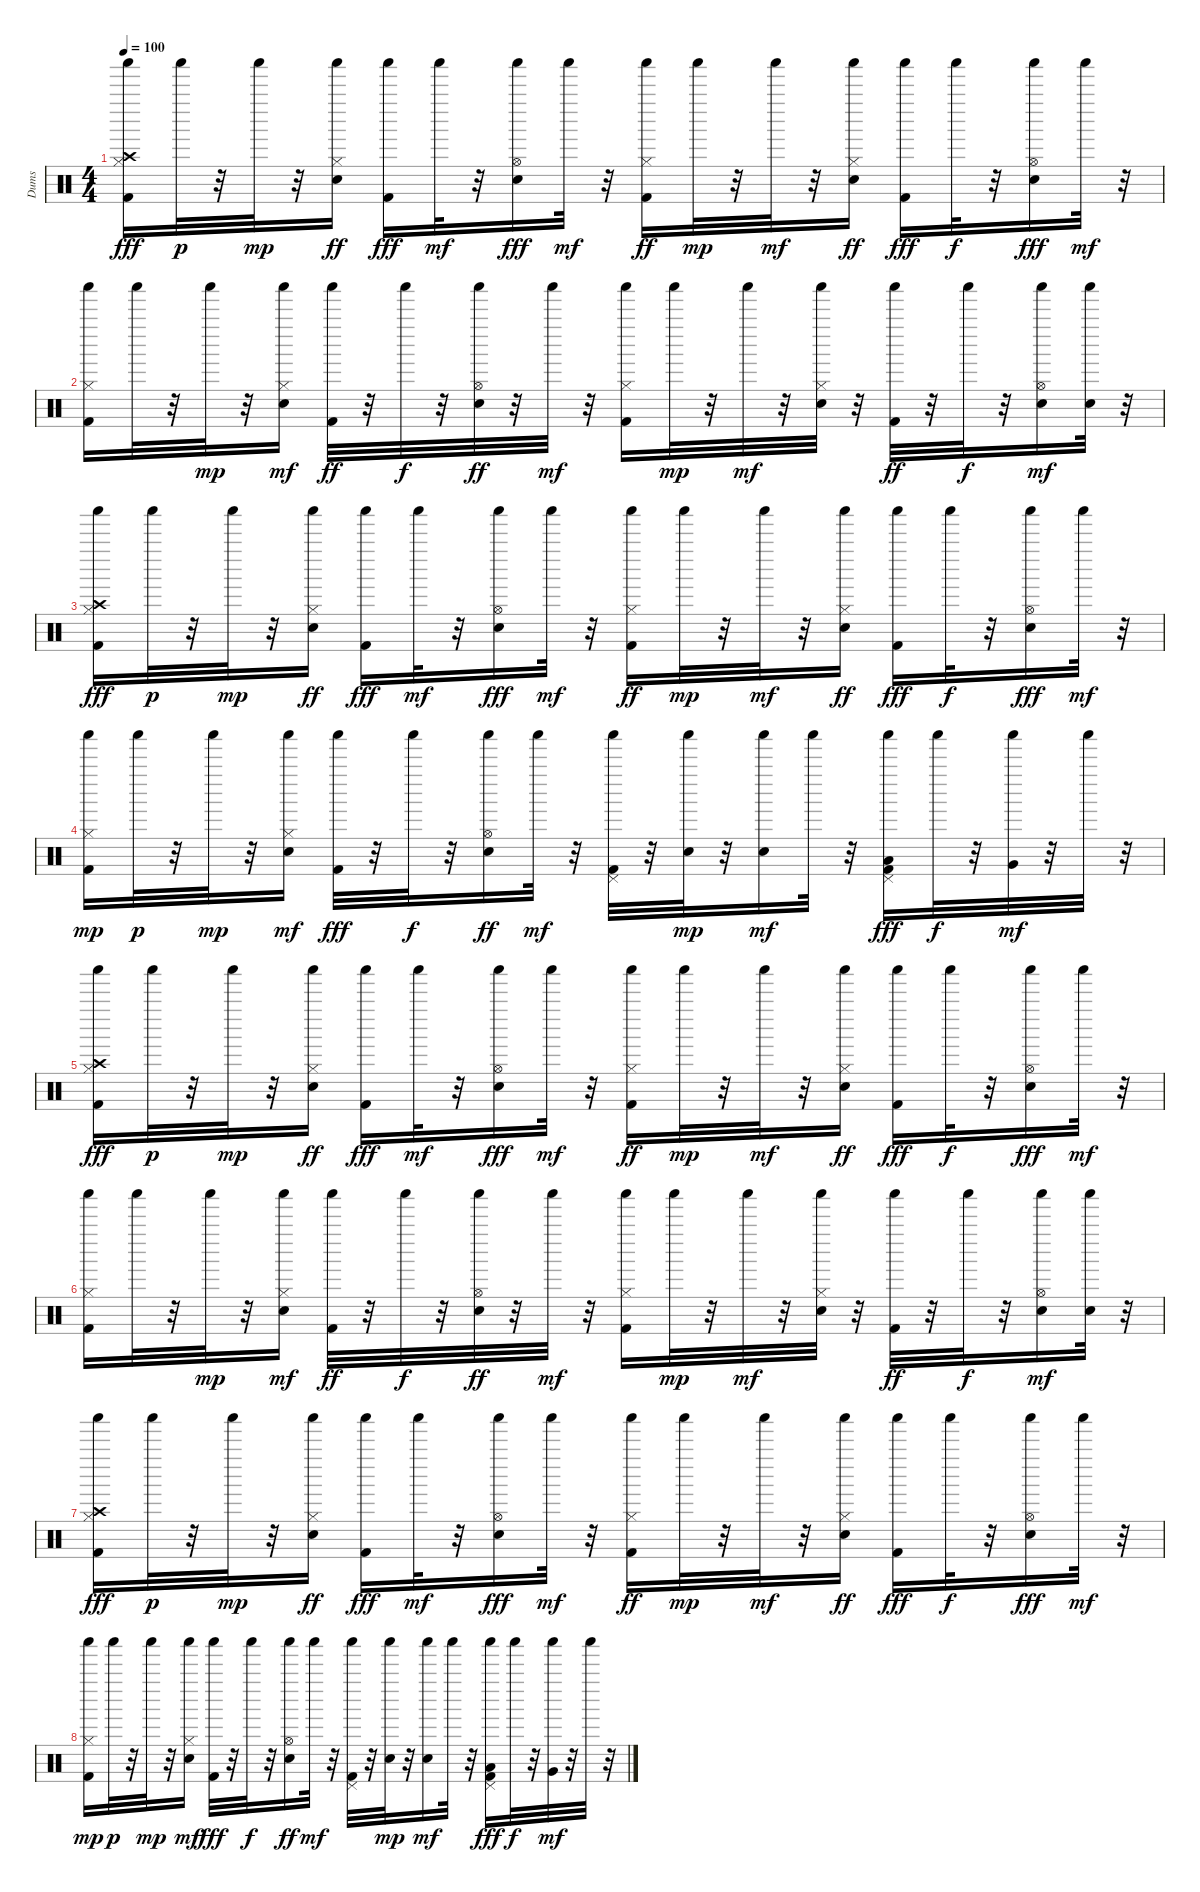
\track ("Dums" "Dums") {instrument percussion}
\staff {score}
\articulation defaults
\ts (4 4)
\tempo 100
\clef neutral
\ks c
("Kick (hit) 2" "Shaker (hit)" "Hi-Hat (closed)" "Crash high (hit)").16{dy fff} "Shaker (hit)".32{dy p} r.32 "Shaker (hit)".32{dy mp} r.32 ("Electric Snare (hit)" "Shaker (hit)" "Hi-Hat (closed)").16{dy ff} ("Shaker (hit)" "Kick (hit) 2").16{dy fff} "Shaker (hit)".32{dy mf} r.32 ("Electric Snare (hit)" "Shaker (hit)" "Hi-Hat (open)").16{dy fff} "Shaker (hit)".32{dy mf} r.32 ("Kick (hit) 2" "Shaker (hit)" "Hi-Hat (closed)").16{dy ff} "Shaker (hit)".32{dy mp} r.32 "Shaker (hit)".32{dy mf} r.32 ("Electric Snare (hit)" "Shaker (hit)" "Hi-Hat (closed)").16{dy ff} ("Shaker (hit)" "Kick (hit) 2").16{dy fff} "Shaker (hit)".32{dy f} r.32 ("Electric Snare (hit)" "Shaker (hit)" "Hi-Hat (open)").16{dy fff} "Shaker (hit)".32{dy mf} r.32 |
("Kick (hit) 2" "Hi-Hat (closed)" "Shaker (hit)").16 "Shaker (hit)".32 r.32 "Shaker (hit)".32{dy mp} r.32 ("Electric Snare (hit)" "Hi-Hat (closed)" "Shaker (hit)").16{dy mf} ("Kick (hit) 2" "Shaker (hit)").32{dy ff} r.32 "Shaker (hit)".32{dy f} r.32 ("Electric Snare (hit)" "Hi-Hat (open)" "Shaker (hit)").32{dy ff} r.32 "Shaker (hit)".32{dy mf} r.32 ("Kick (hit) 2" "Hi-Hat (closed)" "Shaker (hit)").16 "Shaker (hit)".32{dy mp} r.32 "Shaker (hit)".32{dy mf} r.32 ("Electric Snare (hit)" "Hi-Hat (closed)" "Shaker (hit)").32 r.32 ("Kick (hit) 2" "Shaker (hit)").32{dy ff} r.32 "Shaker (hit)".32{dy f} r.32 ("Electric Snare (hit)" "Hi-Hat (open)" "Shaker (hit)").16{dy mf} ("Electric Snare (hit)" "Shaker (hit)").32 r.32 |
("Kick (hit) 2" "Shaker (hit)" "Hi-Hat (closed)" "Crash high (hit)").16{dy fff} "Shaker (hit)".32{dy p} r.32 "Shaker (hit)".32{dy mp} r.32 ("Electric Snare (hit)" "Shaker (hit)" "Hi-Hat (closed)").16{dy ff} ("Shaker (hit)" "Kick (hit) 2").16{dy fff} "Shaker (hit)".32{dy mf} r.32 ("Electric Snare (hit)" "Shaker (hit)" "Hi-Hat (open)").16{dy fff} "Shaker (hit)".32{dy mf} r.32 ("Kick (hit) 2" "Shaker (hit)" "Hi-Hat (closed)").16{dy ff} "Shaker (hit)".32{dy mp} r.32 "Shaker (hit)".32{dy mf} r.32 ("Electric Snare (hit)" "Shaker (hit)" "Hi-Hat (closed)").16{dy ff} ("Shaker (hit)" "Kick (hit) 2").16{dy fff} "Shaker (hit)".32{dy f} r.32 ("Electric Snare (hit)" "Shaker (hit)" "Hi-Hat (open)").16{dy fff} "Shaker (hit)".32{dy mf} r.32 |
("Kick (hit) 2" "Hi-Hat (closed)" "Shaker (hit)").16{dy mp} "Shaker (hit)".32{dy p} r.32 "Shaker (hit)".32{dy mp} r.32 ("Electric Snare (hit)" "Hi-Hat (closed)" "Shaker (hit)").16{dy mf} ("Kick (hit) 2" "Shaker (hit)").32{dy fff} r.32 "Shaker (hit)".32{dy f} r.32 ("Electric Snare (hit)" "Hi-Hat (open)" "Shaker (hit)").16{dy ff} "Shaker (hit)".32{dy mf} r.32 ("Kick (hit) 2" "Pedal Hi-Hat (hit)" "Shaker (hit)").32 r.32 ("Electric Snare (hit)" "Shaker (hit)").32{dy mp} r.32 ("Electric Snare (hit)" "Shaker (hit)").16{dy mf} "Shaker (hit)".32 r.32 ("Kick (hit) 2" "Low Tom (hit)" "Pedal Hi-Hat (hit)" "Shaker (hit)").16{dy fff} "Shaker (hit)".32{dy f} r.32 ("Very Low Tom (hit)" "Shaker (hit)").32{dy mf} r.32 "Shaker (hit)".32 r.32 |
("Kick (hit) 2" "Shaker (hit)" "Hi-Hat (closed)" "Crash high (hit)").16{dy fff} "Shaker (hit)".32{dy p} r.32 "Shaker (hit)".32{dy mp} r.32 ("Electric Snare (hit)" "Shaker (hit)" "Hi-Hat (closed)").16{dy ff} ("Shaker (hit)" "Kick (hit) 2").16{dy fff} "Shaker (hit)".32{dy mf} r.32 ("Electric Snare (hit)" "Shaker (hit)" "Hi-Hat (open)").16{dy fff} "Shaker (hit)".32{dy mf} r.32 ("Kick (hit) 2" "Shaker (hit)" "Hi-Hat (closed)").16{dy ff} "Shaker (hit)".32{dy mp} r.32 "Shaker (hit)".32{dy mf} r.32 ("Electric Snare (hit)" "Shaker (hit)" "Hi-Hat (closed)").16{dy ff} ("Shaker (hit)" "Kick (hit) 2").16{dy fff} "Shaker (hit)".32{dy f} r.32 ("Electric Snare (hit)" "Shaker (hit)" "Hi-Hat (open)").16{dy fff} "Shaker (hit)".32{dy mf} r.32 |
("Kick (hit) 2" "Hi-Hat (closed)" "Shaker (hit)").16 "Shaker (hit)".32 r.32 "Shaker (hit)".32{dy mp} r.32 ("Electric Snare (hit)" "Hi-Hat (closed)" "Shaker (hit)").16{dy mf} ("Kick (hit) 2" "Shaker (hit)").32{dy ff} r.32 "Shaker (hit)".32{dy f} r.32 ("Electric Snare (hit)" "Hi-Hat (open)" "Shaker (hit)").32{dy ff} r.32 "Shaker (hit)".32{dy mf} r.32 ("Kick (hit) 2" "Hi-Hat (closed)" "Shaker (hit)").16 "Shaker (hit)".32{dy mp} r.32 "Shaker (hit)".32{dy mf} r.32 ("Electric Snare (hit)" "Hi-Hat (closed)" "Shaker (hit)").32 r.32 ("Kick (hit) 2" "Shaker (hit)").32{dy ff} r.32 "Shaker (hit)".32{dy f} r.32 ("Electric Snare (hit)" "Hi-Hat (open)" "Shaker (hit)").16{dy mf} ("Electric Snare (hit)" "Shaker (hit)").32 r.32 |
("Kick (hit) 2" "Shaker (hit)" "Hi-Hat (closed)" "Crash high (hit)").16{dy fff} "Shaker (hit)".32{dy p} r.32 "Shaker (hit)".32{dy mp} r.32 ("Electric Snare (hit)" "Shaker (hit)" "Hi-Hat (closed)").16{dy ff} ("Shaker (hit)" "Kick (hit) 2").16{dy fff} "Shaker (hit)".32{dy mf} r.32 ("Electric Snare (hit)" "Shaker (hit)" "Hi-Hat (open)").16{dy fff} "Shaker (hit)".32{dy mf} r.32 ("Kick (hit) 2" "Shaker (hit)" "Hi-Hat (closed)").16{dy ff} "Shaker (hit)".32{dy mp} r.32 "Shaker (hit)".32{dy mf} r.32 ("Electric Snare (hit)" "Shaker (hit)" "Hi-Hat (closed)").16{dy ff} ("Shaker (hit)" "Kick (hit) 2").16{dy fff} "Shaker (hit)".32{dy f} r.32 ("Electric Snare (hit)" "Shaker (hit)" "Hi-Hat (open)").16{dy fff} "Shaker (hit)".32{dy mf} r.32 |
("Kick (hit) 2" "Hi-Hat (closed)" "Shaker (hit)").16{dy mp} "Shaker (hit)".32{dy p} r.32 "Shaker (hit)".32{dy mp} r.32 ("Electric Snare (hit)" "Hi-Hat (closed)" "Shaker (hit)").16{dy mf} ("Kick (hit) 2" "Shaker (hit)").32{dy fff} r.32 "Shaker (hit)".32{dy f} r.32 ("Electric Snare (hit)" "Hi-Hat (open)" "Shaker (hit)").16{dy ff} "Shaker (hit)".32{dy mf} r.32 ("Kick (hit) 2" "Pedal Hi-Hat (hit)" "Shaker (hit)").32 r.32 ("Electric Snare (hit)" "Shaker (hit)").32{dy mp} r.32 ("Electric Snare (hit)" "Shaker (hit)").16{dy mf} "Shaker (hit)".32 r.32 ("Kick (hit) 2" "Low Tom (hit)" "Pedal Hi-Hat (hit)" "Shaker (hit)").16{dy fff} "Shaker (hit)".32{dy f} r.32 ("Very Low Tom (hit)" "Shaker (hit)").32{dy mf} r.32 "Shaker (hit)".32 r.32
